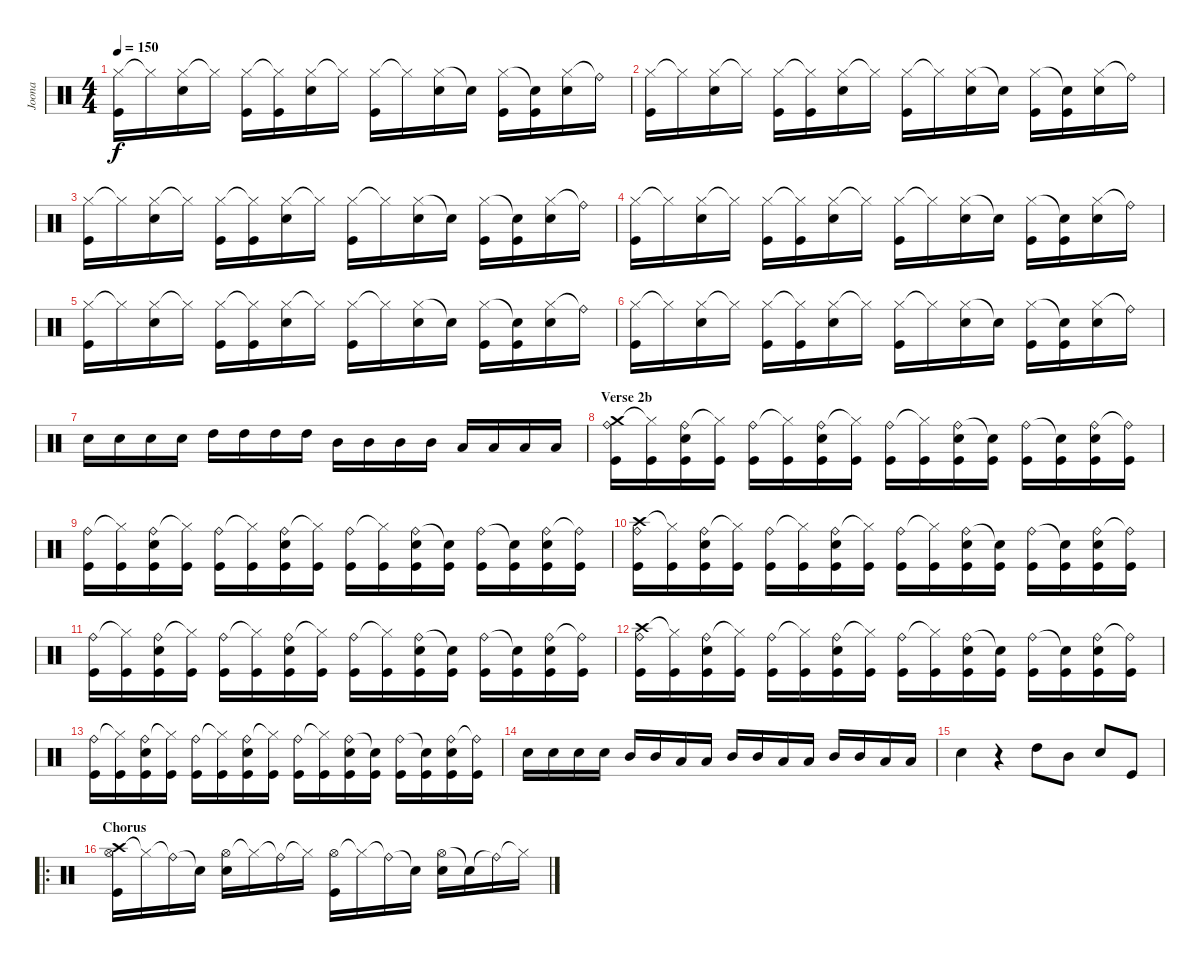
\track ("Joona" "Joona") {instrument percussion}
\staff {score}
\articulation defaults
\ts (4 4)
\tempo 150
\clef neutral
\ks c
("Hi-Hat (closed)" "Kick (hit)").16{dy f} "Hi-Hat (closed)"{t}.16 ("Hi-Hat (closed)" "Snare (hit) 2").16 "Hi-Hat (closed)"{t}.16 ("Hi-Hat (closed)" "Kick (hit)").16 ("Hi-Hat (closed)"{t} "Kick (hit)").16 ("Hi-Hat (closed)" "Snare (hit) 2").16 "Hi-Hat (closed)"{t}.16 ("Hi-Hat (closed)" "Kick (hit)").16 "Hi-Hat (closed)"{t}.16 ("Hi-Hat (closed)" "Snare (hit) 2").16 "Snare (hit)"{t}.16 ("Hi-Hat (closed)" "Kick (hit)").16 ("Snare (hit)"{t} "Kick (hit)").16 ("Hi-Hat (closed)" "Snare (hit) 2").16 "Ride (bell)"{t}.16 |
("Hi-Hat (closed)" "Kick (hit)").16 "Hi-Hat (closed)"{t}.16 ("Hi-Hat (closed)" "Snare (hit) 2").16 "Hi-Hat (closed)"{t}.16 ("Hi-Hat (closed)" "Kick (hit)").16 ("Hi-Hat (closed)"{t} "Kick (hit)").16 ("Hi-Hat (closed)" "Snare (hit) 2").16 "Hi-Hat (closed)"{t}.16 ("Hi-Hat (closed)" "Kick (hit)").16 "Hi-Hat (closed)"{t}.16 ("Hi-Hat (closed)" "Snare (hit) 2").16 "Snare (hit)"{t}.16 ("Hi-Hat (closed)" "Kick (hit)").16 ("Snare (hit)"{t} "Kick (hit)").16 ("Hi-Hat (closed)" "Snare (hit) 2").16 "Ride (bell)"{t}.16 |
("Hi-Hat (closed)" "Kick (hit)").16 "Hi-Hat (closed)"{t}.16 ("Hi-Hat (closed)" "Snare (hit) 2").16 "Hi-Hat (closed)"{t}.16 ("Hi-Hat (closed)" "Kick (hit)").16 ("Hi-Hat (closed)"{t} "Kick (hit)").16 ("Hi-Hat (closed)" "Snare (hit) 2").16 "Hi-Hat (closed)"{t}.16 ("Hi-Hat (closed)" "Kick (hit)").16 "Hi-Hat (closed)"{t}.16 ("Hi-Hat (closed)" "Snare (hit) 2").16 "Snare (hit)"{t}.16 ("Hi-Hat (closed)" "Kick (hit)").16 ("Snare (hit)"{t} "Kick (hit)").16 ("Hi-Hat (closed)" "Snare (hit) 2").16 "Ride (bell)"{t}.16 |
("Hi-Hat (closed)" "Kick (hit)").16 "Hi-Hat (closed)"{t}.16 ("Hi-Hat (closed)" "Snare (hit) 2").16 "Hi-Hat (closed)"{t}.16 ("Hi-Hat (closed)" "Kick (hit)").16 ("Hi-Hat (closed)"{t} "Kick (hit)").16 ("Hi-Hat (closed)" "Snare (hit) 2").16 "Hi-Hat (closed)"{t}.16 ("Hi-Hat (closed)" "Kick (hit)").16 "Hi-Hat (closed)"{t}.16 ("Hi-Hat (closed)" "Snare (hit) 2").16 "Snare (hit)"{t}.16 ("Hi-Hat (closed)" "Kick (hit)").16 ("Snare (hit)"{t} "Kick (hit)").16 ("Hi-Hat (closed)" "Snare (hit) 2").16 "Ride (bell)"{t}.16 |
("Hi-Hat (closed)" "Kick (hit)").16 "Hi-Hat (closed)"{t}.16 ("Hi-Hat (closed)" "Snare (hit) 2").16 "Hi-Hat (closed)"{t}.16 ("Hi-Hat (closed)" "Kick (hit)").16 ("Hi-Hat (closed)"{t} "Kick (hit)").16 ("Hi-Hat (closed)" "Snare (hit) 2").16 "Hi-Hat (closed)"{t}.16 ("Hi-Hat (closed)" "Kick (hit)").16 "Hi-Hat (closed)"{t}.16 ("Hi-Hat (closed)" "Snare (hit) 2").16 "Snare (hit)"{t}.16 ("Hi-Hat (closed)" "Kick (hit)").16 ("Snare (hit)"{t} "Kick (hit)").16 ("Hi-Hat (closed)" "Snare (hit) 2").16 "Ride (bell)"{t}.16 |
("Hi-Hat (closed)" "Kick (hit)").16 "Hi-Hat (closed)"{t}.16 ("Hi-Hat (closed)" "Snare (hit) 2").16 "Hi-Hat (closed)"{t}.16 ("Hi-Hat (closed)" "Kick (hit)").16 ("Hi-Hat (closed)"{t} "Kick (hit)").16 ("Hi-Hat (closed)" "Snare (hit) 2").16 "Hi-Hat (closed)"{t}.16 ("Hi-Hat (closed)" "Kick (hit)").16 "Hi-Hat (closed)"{t}.16 ("Hi-Hat (closed)" "Snare (hit) 2").16 "Snare (hit)"{t}.16 ("Hi-Hat (closed)" "Kick (hit)").16 ("Snare (hit)"{t} "Kick (hit)").16 ("Hi-Hat (closed)" "Snare (hit) 2").16 "Ride (bell)"{t}.16 |
"Snare (hit) 2".16 "Snare (hit) 2".16 "Snare (hit) 2".16 "Snare (hit) 2".16 "High Tom (hit)".16 "High Tom (hit)".16 "High Tom (hit)".16 "High Tom (hit)".16 "Mid Tom (hit)".16 "Mid Tom (hit)".16 "Mid Tom (hit)".16 "Mid Tom (hit)".16 "Low Tom (hit)".16 "Low Tom (hit)".16 "Low Tom (hit)".16 "Low Tom (hit)".16 |
\section ("" "Verse 2b")
("Crash medium (hit)" "Ride (bell)" "Kick (hit)").16 ("Hi-Hat (closed)"{t} "Kick (hit)").16 ("Ride (bell)" "Snare (hit) 2" "Kick (hit)").16 ("Hi-Hat (closed)"{t} "Kick (hit)").16 ("Ride (bell)" "Kick (hit)").16 ("Hi-Hat (closed)"{t} "Kick (hit)").16 ("Ride (bell)" "Snare (hit) 2" "Kick (hit)").16 ("Hi-Hat (closed)"{t} "Kick (hit)").16 ("Ride (bell)" "Kick (hit)").16 ("Hi-Hat (closed)"{t} "Kick (hit)").16 ("Ride (bell)" "Snare (hit) 2" "Kick (hit)").16 ("Snare (hit)"{t} "Kick (hit)").16 ("Ride (bell)" "Kick (hit)").16 ("Snare (hit)"{t} "Kick (hit)").16 ("Ride (bell)" "Snare (hit) 2" "Kick (hit)").16 ("Ride (bell)"{t} "Kick (hit)").16 |
("Ride (bell)" "Kick (hit)").16 ("Hi-Hat (closed)"{t} "Kick (hit)").16 ("Ride (bell)" "Snare (hit) 2" "Kick (hit)").16 ("Hi-Hat (closed)"{t} "Kick (hit)").16 ("Ride (bell)" "Kick (hit)").16 ("Hi-Hat (closed)"{t} "Kick (hit)").16 ("Ride (bell)" "Snare (hit) 2" "Kick (hit)").16 ("Hi-Hat (closed)"{t} "Kick (hit)").16 ("Ride (bell)" "Kick (hit)").16 ("Hi-Hat (closed)"{t} "Kick (hit)").16 ("Ride (bell)" "Snare (hit) 2" "Kick (hit)").16 ("Snare (hit)"{t} "Kick (hit)").16 ("Ride (bell)" "Kick (hit)").16 ("Snare (hit)"{t} "Kick (hit)").16 ("Ride (bell)" "Snare (hit) 2" "Kick (hit)").16 ("Ride (bell)"{t} "Kick (hit)").16 |
("Crash high (hit)" "Ride (bell)" "Kick (hit)").16 ("Hi-Hat (closed)"{t} "Kick (hit)").16 ("Ride (bell)" "Snare (hit) 2" "Kick (hit)").16 ("Hi-Hat (closed)"{t} "Kick (hit)").16 ("Ride (bell)" "Kick (hit)").16 ("Hi-Hat (closed)"{t} "Kick (hit)").16 ("Ride (bell)" "Snare (hit) 2" "Kick (hit)").16 ("Hi-Hat (closed)"{t} "Kick (hit)").16 ("Ride (bell)" "Kick (hit)").16 ("Hi-Hat (closed)"{t} "Kick (hit)").16 ("Ride (bell)" "Snare (hit) 2" "Kick (hit)").16 ("Snare (hit)"{t} "Kick (hit)").16 ("Ride (bell)" "Kick (hit)").16 ("Snare (hit)"{t} "Kick (hit)").16 ("Ride (bell)" "Snare (hit) 2" "Kick (hit)").16 ("Ride (bell)"{t} "Kick (hit)").16 |
("Ride (bell)" "Kick (hit)").16 ("Hi-Hat (closed)"{t} "Kick (hit)").16 ("Ride (bell)" "Snare (hit) 2" "Kick (hit)").16 ("Hi-Hat (closed)"{t} "Kick (hit)").16 ("Ride (bell)" "Kick (hit)").16 ("Hi-Hat (closed)"{t} "Kick (hit)").16 ("Ride (bell)" "Snare (hit) 2" "Kick (hit)").16 ("Hi-Hat (closed)"{t} "Kick (hit)").16 ("Ride (bell)" "Kick (hit)").16 ("Hi-Hat (closed)"{t} "Kick (hit)").16 ("Ride (bell)" "Snare (hit) 2" "Kick (hit)").16 ("Snare (hit)"{t} "Kick (hit)").16 ("Ride (bell)" "Kick (hit)").16 ("Snare (hit)"{t} "Kick (hit)").16 ("Ride (bell)" "Snare (hit) 2" "Kick (hit)").16 ("Ride (bell)"{t} "Kick (hit)").16 |
("Crash high (hit)" "Ride (bell)" "Kick (hit)").16 ("Hi-Hat (closed)"{t} "Kick (hit)").16 ("Ride (bell)" "Snare (hit) 2" "Kick (hit)").16 ("Hi-Hat (closed)"{t} "Kick (hit)").16 ("Ride (bell)" "Kick (hit)").16 ("Hi-Hat (closed)"{t} "Kick (hit)").16 ("Ride (bell)" "Snare (hit) 2" "Kick (hit)").16 ("Hi-Hat (closed)"{t} "Kick (hit)").16 ("Ride (bell)" "Kick (hit)").16 ("Hi-Hat (closed)"{t} "Kick (hit)").16 ("Ride (bell)" "Snare (hit) 2" "Kick (hit)").16 ("Snare (hit)"{t} "Kick (hit)").16 ("Ride (bell)" "Kick (hit)").16 ("Snare (hit)"{t} "Kick (hit)").16 ("Ride (bell)" "Snare (hit) 2" "Kick (hit)").16 ("Ride (bell)"{t} "Kick (hit)").16 |
("Ride (bell)" "Kick (hit)").16 ("Hi-Hat (closed)"{t} "Kick (hit)").16 ("Ride (bell)" "Snare (hit) 2" "Kick (hit)").16 ("Hi-Hat (closed)"{t} "Kick (hit)").16 ("Ride (bell)" "Kick (hit)").16 ("Hi-Hat (closed)"{t} "Kick (hit)").16 ("Ride (bell)" "Snare (hit) 2" "Kick (hit)").16 ("Hi-Hat (closed)"{t} "Kick (hit)").16 ("Ride (bell)" "Kick (hit)").16 ("Hi-Hat (closed)"{t} "Kick (hit)").16 ("Ride (bell)" "Snare (hit) 2" "Kick (hit)").16 ("Snare (hit)"{t} "Kick (hit)").16 ("Ride (bell)" "Kick (hit)").16 ("Snare (hit)"{t} "Kick (hit)").16 ("Ride (bell)" "Snare (hit) 2" "Kick (hit)").16 ("Ride (bell)"{t} "Kick (hit)").16 |
"Snare (hit) 2".16 "Snare (hit) 2".16 "Snare (hit) 2".16 "Snare (hit) 2".16 "Mid Tom (hit)".16 "Mid Tom (hit)".16 "Low Tom (hit)".16 "Low Tom (hit)".16 "Mid Tom (hit)".16 "Mid Tom (hit)".16 "Low Tom (hit)".16 "Low Tom (hit)".16 "Mid Tom (hit)".16 "Mid Tom (hit)".16 "Low Tom (hit)".16 "Low Tom (hit)".16 |
"Snare (hit) 2".4 r.4 "High Tom (hit)".8 "Mid Tom (hit)".8 "Snare (hit) 2".8 "Kick (hit)".8 |
\ro
\section ("" "Chorus")
("Crash high (hit)" "Hi-Hat (open)" "Kick (hit)").16 "Hi-Hat (closed)"{t}.16 "Ride (bell)"{t}.16 "Snare (hit)"{t}.16 ("Hi-Hat (open)" "Snare (hit) 2").16 "Hi-Hat (closed)"{t}.16 "Ride (bell)"{t}.16 "Hi-Hat (closed)"{t}.16 ("Hi-Hat (open)" "Kick (hit)").16 "Hi-Hat (closed)"{t}.16 "Ride (bell)"{t}.16 "Snare (hit)"{t}.16 ("Hi-Hat (open)" "Snare (hit) 2").16 "Snare (hit)"{t}.16 "Ride (bell)"{t}.16 "Hi-Hat (closed)"{t}.16
